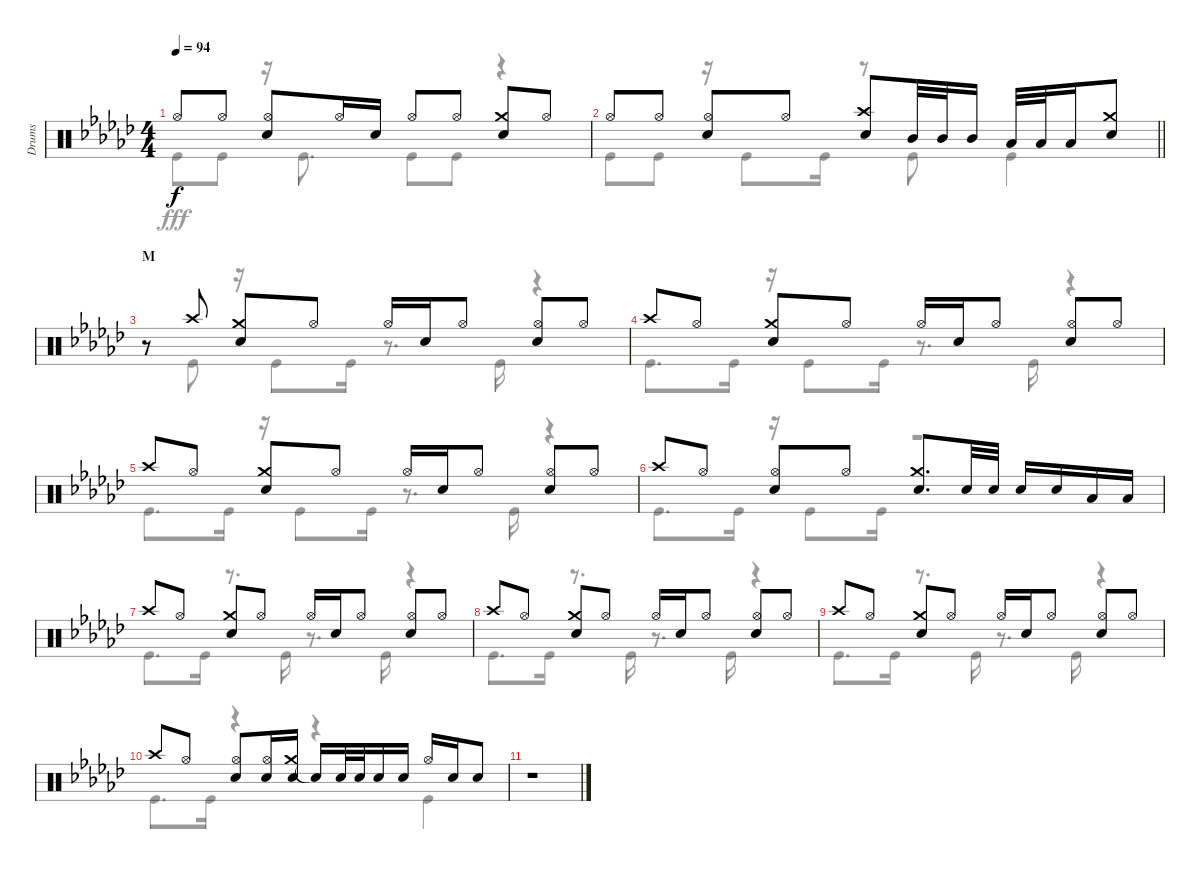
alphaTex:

\track ("Drums" "Drums") {instrument percussion}
\staff {score}
\articulation defaults
\voice
\ts (4 4)
\tempo 94
\clef neutral
\ks gb "Hi-Hat (open)".8{dy f} "Hi-Hat (open)".8
("Hi-Hat (open)" "Snare (hit) 2").8 "Hi-Hat (open)".16 "Snare (hit) 2".16 "Hi-Hat (open)".8 "Hi-Hat (open)".8 ("Crash medium (hit)" "Snare (hit) 2").8 "Hi-Hat (open)".8 |
\barLineRight lightlight "Hi-Hat (open)".8 "Hi-Hat (open)".8
("Hi-Hat (open)" "Snare (hit) 2").8 "Hi-Hat (open)".8 ("Crash high (hit)" "Snare (hit) 2").8 "Mid Tom (hit)".32 "Mid Tom (hit)".32 "Mid Tom (hit)".16 "Low Tom (hit)".32 "Low Tom (hit)".32 "Low Tom (hit)".16 ("Crash medium (hit)" "Snare (hit) 2").8 |
\section ("" "M")
r.8 "Crash high (hit)".8 ("Crash medium (hit)" "Snare (hit) 2").8 "Hi-Hat (open)".8 "Hi-Hat (open)".16 "Snare (hit) 2".16 "Hi-Hat (open)".8 ("Hi-Hat (open)" "Snare (hit) 2").8 "Hi-Hat (open)".8 |
"Crash high (hit)".8 "Hi-Hat (open)".8 ("Crash medium (hit)" "Snare (hit) 2").8 "Hi-Hat (open)".8 "Hi-Hat (open)".16 "Snare (hit) 2".16 "Hi-Hat (open)".8 ("Hi-Hat (open)" "Snare (hit) 2").8 "Hi-Hat (open)".8 |
"Crash high (hit)".8 "Hi-Hat (open)".8 ("Crash medium (hit)" "Snare (hit) 2").8 "Hi-Hat (open)".8 "Hi-Hat (open)".16 "Snare (hit) 2".16 "Hi-Hat (open)".8 ("Hi-Hat (open)" "Snare (hit) 2").8 "Hi-Hat (open)".8 |
"Crash high (hit)".8 "Hi-Hat (open)".8 ("Hi-Hat (open)" "Snare (hit) 2").8 "Hi-Hat (open)".8 ("Crash medium (hit)" "Snare (hit) 2").8{d} "Snare (hit) 2".32 "Snare (hit) 2".32 "Snare (hit) 2".16 "Snare (hit) 2".16 "Low Tom (hit)".16 "Low Tom (hit)".16 |
"Crash high (hit)".8 "Hi-Hat (open)".8 ("Crash medium (hit)" "Snare (hit) 2").8 "Hi-Hat (open)".8 "Hi-Hat (open)".16 "Snare (hit) 2".16 "Hi-Hat (open)".8 ("Hi-Hat (open)" "Snare (hit) 2").8 "Hi-Hat (open)".8 |
"Crash high (hit)".8 "Hi-Hat (open)".8 ("Crash medium (hit)" "Snare (hit) 2").8 "Hi-Hat (open)".8 "Hi-Hat (open)".16 "Snare (hit) 2".16 "Hi-Hat (open)".8 ("Hi-Hat (open)" "Snare (hit) 2").8 "Hi-Hat (open)".8 |
"Crash high (hit)".8 "Hi-Hat (open)".8 ("Crash medium (hit)" "Snare (hit) 2").8 "Hi-Hat (open)".8 "Hi-Hat (open)".16 "Snare (hit) 2".16 "Hi-Hat (open)".8 ("Hi-Hat (open)" "Snare (hit) 2").8 "Hi-Hat (open)".8 |
"Crash high (hit)".8 "Hi-Hat (open)".8 ("Hi-Hat (open)" "Snare (hit) 2").8 ("Hi-Hat (open)" "Snare (hit) 2").16 ("Crash medium (hit)" "Snare (hit) 2").16 "Snare (hit)"{t}.16 "Snare (hit) 2".32 "Snare (hit) 2".32 "Snare (hit) 2".16 "Snare (hit) 2".16 "Hi-Hat (open)".16 "Snare (hit) 2".16 "Snare (hit) 2".8 |
r.1
\voice
\clef neutral
\ottava regular
\simile none
\ks gb "Kick (hit)".8{dy fff} "Kick (hit)".8
r.16 "Kick (hit)".8{d} "Kick (hit)".8 "Kick (hit)".8 r.4 |
\barLineRight lightlight "Kick (hit)".8 "Kick (hit)".8
r.16 "Kick (hit)".8 "Kick (hit)".16 r.8 "Kick (hit)".8 "Kick (hit)".4 |
r.8 "Kick (hit)".8 r.16 "Kick (hit)".8 "Kick (hit)".16 r.8{d} "Kick (hit)".16 r.4 |
"Kick (hit)".8{d} "Kick (hit)".16 r.16 "Kick (hit)".8 "Kick (hit)".16 r.8{d} "Kick (hit)".16 r.4 |
"Kick (hit)".8{d} "Kick (hit)".16 r.16 "Kick (hit)".8 "Kick (hit)".16 r.8{d} "Kick (hit)".16 r.4 |
"Kick (hit)".8{d} "Kick (hit)".16 r.16 "Kick (hit)".8 "Kick (hit)".16 r.2 |
"Kick (hit)".8{d} "Kick (hit)".16 r.8{d} "Kick (hit)".16 r.8{d} "Kick (hit)".16 r.4 |
"Kick (hit)".8{d} "Kick (hit)".16 r.8{d} "Kick (hit)".16 r.8{d} "Kick (hit)".16 r.4 |
"Kick (hit)".8{d} "Kick (hit)".16 r.8{d} "Kick (hit)".16 r.8{d} "Kick (hit)".16 r.4 |
"Kick (hit)".8{d} "Kick (hit)".16 r.4 r.4 "Kick (hit)".4 |
r.1
